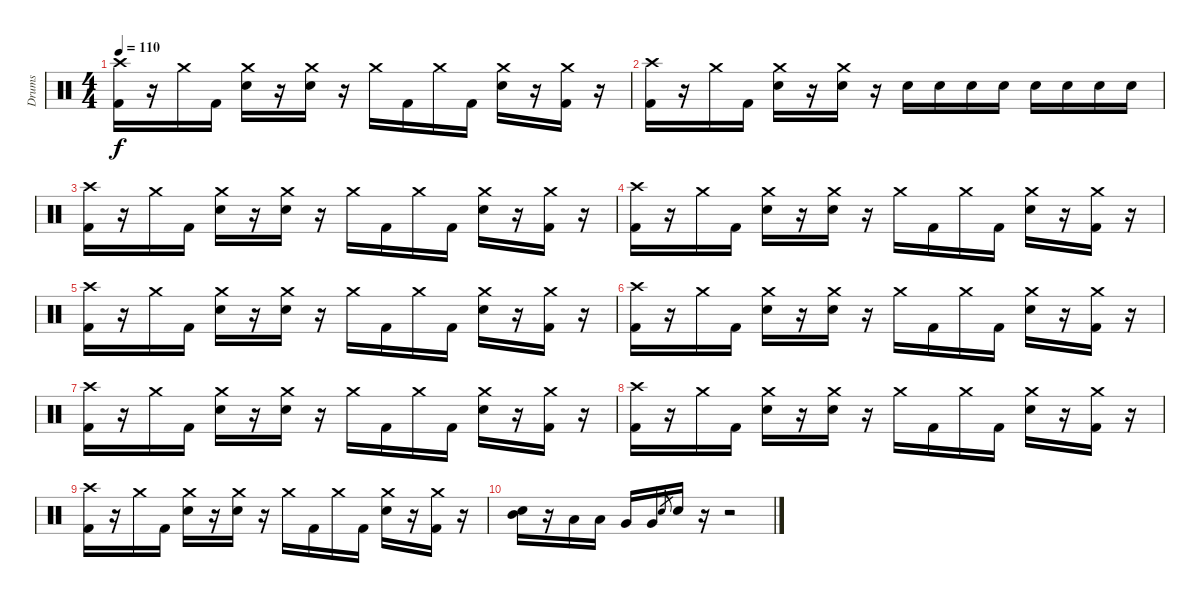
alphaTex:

\track ("Drums" "Drums") {instrument percussion}
\staff {score}
\articulation defaults
\ts (4 4)
\tempo 110
\clef neutral
\ks c
("Crash high (hit)" "Kick (hit) 2").16{dy f} r.16 "Crash medium (hit)".16 "Kick (hit) 2".16 ("Crash medium (hit)" "Electric Snare (hit)").16 r.16 ("Crash medium (hit)" "Electric Snare (hit)").16 r.16 "Crash medium (hit)".16 "Kick (hit) 2".16 "Crash medium (hit)".16 "Kick (hit) 2".16 ("Crash medium (hit)" "Electric Snare (hit)").16 r.16 ("Crash medium (hit)" "Kick (hit) 2").16 r.16 |
("Crash high (hit)" "Kick (hit) 2").16 r.16 "Crash medium (hit)".16 "Kick (hit) 2".16 ("Crash medium (hit)" "Electric Snare (hit)").16 r.16 ("Crash medium (hit)" "Electric Snare (hit)").16 r.16 "Electric Snare (hit)".16 "Electric Snare (hit)".16 "Electric Snare (hit)".16 "Electric Snare (hit)".16 "Electric Snare (hit)".16 "Electric Snare (hit)".16 "Electric Snare (hit)".16 "Electric Snare (hit)".16 |
("Crash high (hit)" "Kick (hit) 2").16 r.16 "Crash medium (hit)".16 "Kick (hit) 2".16 ("Crash medium (hit)" "Electric Snare (hit)").16 r.16 ("Crash medium (hit)" "Electric Snare (hit)").16 r.16 "Crash medium (hit)".16 "Kick (hit) 2".16 "Crash medium (hit)".16 "Kick (hit) 2".16 ("Crash medium (hit)" "Electric Snare (hit)").16 r.16 ("Crash medium (hit)" "Kick (hit) 2").16 r.16 |
("Crash high (hit)" "Kick (hit) 2").16 r.16 "Crash medium (hit)".16 "Kick (hit) 2".16 ("Crash medium (hit)" "Electric Snare (hit)").16 r.16 ("Crash medium (hit)" "Electric Snare (hit)").16 r.16 "Crash medium (hit)".16 "Kick (hit) 2".16 "Crash medium (hit)".16 "Kick (hit) 2".16 ("Crash medium (hit)" "Electric Snare (hit)").16 r.16 ("Crash medium (hit)" "Kick (hit) 2").16 r.16 |
("Crash high (hit)" "Kick (hit) 2").16 r.16 "Crash medium (hit)".16 "Kick (hit) 2".16 ("Crash medium (hit)" "Electric Snare (hit)").16 r.16 ("Crash medium (hit)" "Electric Snare (hit)").16 r.16 "Crash medium (hit)".16 "Kick (hit) 2".16 "Crash medium (hit)".16 "Kick (hit) 2".16 ("Crash medium (hit)" "Electric Snare (hit)").16 r.16 ("Crash medium (hit)" "Kick (hit) 2").16 r.16 |
("Crash high (hit)" "Kick (hit) 2").16 r.16 "Crash medium (hit)".16 "Kick (hit) 2".16 ("Crash medium (hit)" "Electric Snare (hit)").16 r.16 ("Crash medium (hit)" "Electric Snare (hit)").16 r.16 "Crash medium (hit)".16 "Kick (hit) 2".16 "Crash medium (hit)".16 "Kick (hit) 2".16 ("Crash medium (hit)" "Electric Snare (hit)").16 r.16 ("Crash medium (hit)" "Kick (hit) 2").16 r.16 |
("Crash high (hit)" "Kick (hit) 2").16 r.16 "Crash medium (hit)".16 "Kick (hit) 2".16 ("Crash medium (hit)" "Electric Snare (hit)").16 r.16 ("Crash medium (hit)" "Electric Snare (hit)").16 r.16 "Crash medium (hit)".16 "Kick (hit) 2".16 "Crash medium (hit)".16 "Kick (hit) 2".16 ("Crash medium (hit)" "Electric Snare (hit)").16 r.16 ("Crash medium (hit)" "Kick (hit) 2").16 r.16 |
("Crash high (hit)" "Kick (hit) 2").16 r.16 "Crash medium (hit)".16 "Kick (hit) 2".16 ("Crash medium (hit)" "Electric Snare (hit)").16 r.16 ("Crash medium (hit)" "Electric Snare (hit)").16 r.16 "Crash medium (hit)".16 "Kick (hit) 2".16 "Crash medium (hit)".16 "Kick (hit) 2".16 ("Crash medium (hit)" "Electric Snare (hit)").16 r.16 ("Crash medium (hit)" "Kick (hit) 2").16 r.16 |
("Crash high (hit)" "Kick (hit) 2").16 r.16 "Crash medium (hit)".16 "Kick (hit) 2".16 ("Crash medium (hit)" "Electric Snare (hit)").16 r.16 ("Crash medium (hit)" "Electric Snare (hit)").16 r.16 "Crash medium (hit)".16 "Kick (hit) 2".16 "Crash medium (hit)".16 "Kick (hit) 2".16 ("Crash medium (hit)" "Electric Snare (hit)").16 r.16 ("Crash medium (hit)" "Kick (hit) 2").16 r.16 |
("Mid Tom (hit)" "Electric Snare (hit)").16 r.16 "Low Tom (hit)".16 "Low Tom (hit)".16 "Very Low Tom (hit)".16 "Very Low Tom (hit)".16 "Electric Snare (hit)".8{gr} "Electric Snare (hit)".16 r.16 r.2
